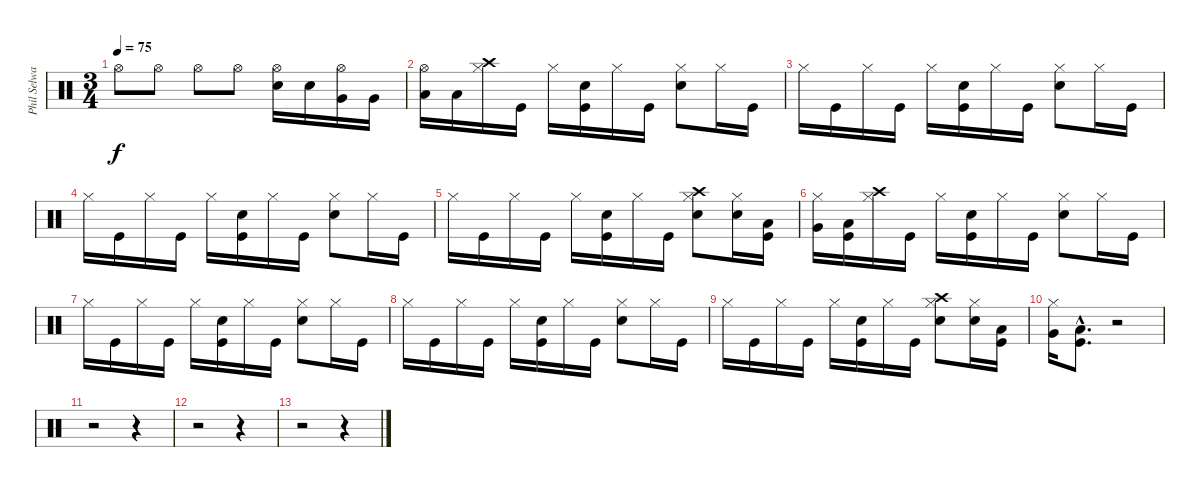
\track ("Phil Selway" "Phil Selwa") {instrument percussion}
\staff {score}
\articulation defaults
\ts (3 4)
\tempo 75
\clef neutral
\ks c "Hi-Hat (open)".8{dy f} "Hi-Hat (open)".8 "Hi-Hat (open)".8 "Hi-Hat (open)".8
("Snare (hit) 2" "Hi-Hat (open)").16 "Snare (hit) 2".16 ("Very Low Tom (hit)" "Hi-Hat (open)").16 "Very Low Tom (hit)".16 |
("Low Floor Tom (hit)" "Hi-Hat (open)").16 "Low Floor Tom (hit)".16 ("Hi-Hat (closed)" "Crash high (hit)").16 "Kick (hit)".16 "Hi-Hat (closed)".16 ("Kick (hit)" "Snare (hit) 2").16 "Hi-Hat (closed)".16 "Kick (hit)".16 ("Snare (hit) 2" "Hi-Hat (closed)").8 "Hi-Hat (closed)".16 "Kick (hit)".16 |
"Hi-Hat (closed)".16 "Kick (hit)".16 "Hi-Hat (closed)".16 "Kick (hit)".16 "Hi-Hat (closed)".16 ("Kick (hit)" "Snare (hit) 2").16 "Hi-Hat (closed)".16 "Kick (hit)".16 ("Snare (hit) 2" "Hi-Hat (closed)").8 "Hi-Hat (closed)".16 "Kick (hit)".16 |
"Hi-Hat (closed)".16 "Kick (hit)".16 "Hi-Hat (closed)".16 "Kick (hit)".16 "Hi-Hat (closed)".16 ("Kick (hit)" "Snare (hit) 2").16 "Hi-Hat (closed)".16 "Kick (hit)".16 ("Snare (hit) 2" "Hi-Hat (closed)").8 "Hi-Hat (closed)".16 "Kick (hit)".16 |
"Hi-Hat (closed)".16 "Kick (hit)".16 "Hi-Hat (closed)".16 "Kick (hit)".16 "Hi-Hat (closed)".16 ("Kick (hit)" "Snare (hit) 2").16 "Hi-Hat (closed)".16 "Kick (hit)".16 ("Snare (hit) 2" "Hi-Hat (closed)" "Crash high (hit)").8 ("Snare (hit) 2" "Hi-Hat (closed)").16 ("Kick (hit)" "Low Tom (hit)").16 |
("Hi-Hat (closed)" "Very Low Tom (hit)").16 ("Kick (hit)" "Low Floor Tom (hit)").16 ("Hi-Hat (closed)" "Crash high (hit)").16 "Kick (hit)".16 "Hi-Hat (closed)".16 ("Kick (hit)" "Snare (hit) 2").16 "Hi-Hat (closed)".16 "Kick (hit)".16 ("Snare (hit) 2" "Hi-Hat (closed)").8 "Hi-Hat (closed)".16 "Kick (hit)".16 |
"Hi-Hat (closed)".16 "Kick (hit)".16 "Hi-Hat (closed)".16 "Kick (hit)".16 "Hi-Hat (closed)".16 ("Kick (hit)" "Snare (hit) 2").16 "Hi-Hat (closed)".16 "Kick (hit)".16 ("Snare (hit) 2" "Hi-Hat (closed)").8 "Hi-Hat (closed)".16 "Kick (hit)".16 |
"Hi-Hat (closed)".16 "Kick (hit)".16 "Hi-Hat (closed)".16 "Kick (hit)".16 "Hi-Hat (closed)".16 ("Kick (hit)" "Snare (hit) 2").16 "Hi-Hat (closed)".16 "Kick (hit)".16 ("Snare (hit) 2" "Hi-Hat (closed)").8 "Hi-Hat (closed)".16 "Kick (hit)".16 |
"Hi-Hat (closed)".16 "Kick (hit)".16 "Hi-Hat (closed)".16 "Kick (hit)".16 "Hi-Hat (closed)".16 ("Kick (hit)" "Snare (hit) 2").16 "Hi-Hat (closed)".16 "Kick (hit)".16 ("Snare (hit) 2" "Hi-Hat (closed)" "Crash high (hit)").8 ("Snare (hit) 2" "Hi-Hat (closed)").16 ("Kick (hit)" "Low Tom (hit)").16 |
("Hi-Hat (closed)" "Very Low Tom (hit)").16 ("Kick (hit)"{hac} "Low Floor Tom (hit)"{hac}).8{d} r.2 |
r.2 r.4 |
r.2 r.4 |
r.2 r.4
